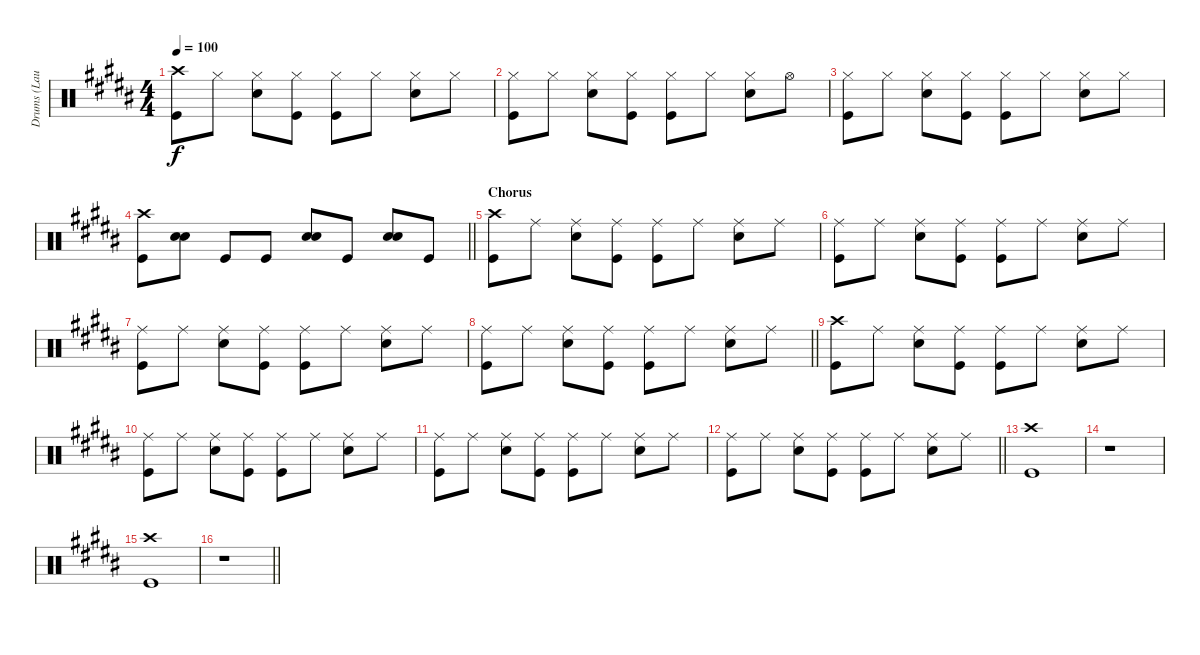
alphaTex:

\track ("Drums (Laust Sonne)" "Drums (Lau") {instrument percussion}
\staff {score}
\articulation defaults
\ts (4 4)
\tempo 100
\clef neutral
\ks b
("Crash high (hit)" "Kick (hit)").8{dy f} "Hi-Hat (closed)".8 ("Hi-Hat (closed)" "Snare (hit) 2").8 ("Hi-Hat (closed)" "Kick (hit)").8 ("Hi-Hat (closed)" "Kick (hit)").8 "Hi-Hat (closed)".8 ("Hi-Hat (closed)" "Snare (hit) 2").8 "Hi-Hat (closed)".8 |
("Hi-Hat (closed)" "Kick (hit)").8 "Hi-Hat (closed)".8 ("Hi-Hat (closed)" "Snare (hit) 2").8 ("Hi-Hat (closed)" "Kick (hit)").8 ("Hi-Hat (closed)" "Kick (hit)").8 "Hi-Hat (closed)".8 ("Hi-Hat (closed)" "Snare (hit) 2").8 "Hi-Hat (open)".8 |
("Hi-Hat (closed)" "Kick (hit)").8 "Hi-Hat (closed)".8 ("Hi-Hat (closed)" "Snare (hit) 2").8 ("Hi-Hat (closed)" "Kick (hit)").8 ("Hi-Hat (closed)" "Kick (hit)").8 "Hi-Hat (closed)".8 ("Hi-Hat (closed)" "Snare (hit) 2").8 "Hi-Hat (closed)".8 |
\barLineRight lightlight
("Crash high (hit)" "Kick (hit)").8 ("Snare (hit) 2" "Snare (hit) 2").8 "Kick (hit)".8 "Kick (hit)".8 ("Snare (hit) 2" "Snare (hit) 2").8 "Kick (hit)".8 ("Snare (hit) 2" "Snare (hit) 2").8 "Kick (hit)".8 |
\section ("" "Chorus")
("Crash high (hit)" "Kick (hit)").8 "Ride (middle)".8 ("Ride (middle)" "Snare (hit) 2").8 ("Ride (middle)" "Kick (hit)").8 ("Ride (middle)" "Kick (hit)").8 "Ride (middle)".8 ("Ride (middle)" "Snare (hit) 2").8 "Ride (middle)".8 |
("Ride (middle)" "Kick (hit)").8 "Ride (middle)".8 ("Ride (middle)" "Snare (hit) 2").8 ("Ride (middle)" "Kick (hit)").8 ("Ride (middle)" "Kick (hit)").8 "Ride (middle)".8 ("Ride (middle)" "Snare (hit) 2").8 "Ride (middle)".8 |
("Ride (middle)" "Kick (hit)").8 "Ride (middle)".8 ("Ride (middle)" "Snare (hit) 2").8 ("Ride (middle)" "Kick (hit)").8 ("Ride (middle)" "Kick (hit)").8 "Ride (middle)".8 ("Ride (middle)" "Snare (hit) 2").8 "Ride (middle)".8 |
\barLineRight lightlight
("Ride (middle)" "Kick (hit)").8 "Ride (middle)".8 ("Ride (middle)" "Snare (hit) 2").8 ("Ride (middle)" "Kick (hit)").8 ("Ride (middle)" "Kick (hit)").8 "Ride (middle)".8 ("Ride (middle)" "Snare (hit) 2").8 "Ride (middle)".8 |
("Crash high (hit)" "Kick (hit)").8 "Ride (middle)".8 ("Ride (middle)" "Snare (hit) 2").8 ("Ride (middle)" "Kick (hit)").8 ("Ride (middle)" "Kick (hit)").8 "Ride (middle)".8 ("Ride (middle)" "Snare (hit) 2").8 "Ride (middle)".8 |
("Ride (middle)" "Kick (hit)").8 "Ride (middle)".8 ("Ride (middle)" "Snare (hit) 2").8 ("Ride (middle)" "Kick (hit)").8 ("Ride (middle)" "Kick (hit)").8 "Ride (middle)".8 ("Ride (middle)" "Snare (hit) 2").8 "Ride (middle)".8 |
("Ride (middle)" "Kick (hit)").8 "Ride (middle)".8 ("Ride (middle)" "Snare (hit) 2").8 ("Ride (middle)" "Kick (hit)").8 ("Ride (middle)" "Kick (hit)").8 "Ride (middle)".8 ("Ride (middle)" "Snare (hit) 2").8 "Ride (middle)".8 |
\barLineRight lightlight
("Ride (middle)" "Kick (hit)").8 "Ride (middle)".8 ("Ride (middle)" "Snare (hit) 2").8 ("Ride (middle)" "Kick (hit)").8 ("Ride (middle)" "Kick (hit)").8 "Ride (middle)".8 ("Ride (middle)" "Snare (hit) 2").8 "Ride (middle)".8 |
("Crash high (hit)" "Kick (hit)").1 |
r.1 |
("Crash high (hit)" "Kick (hit)").1 |
\barLineRight lightlight
r.1
